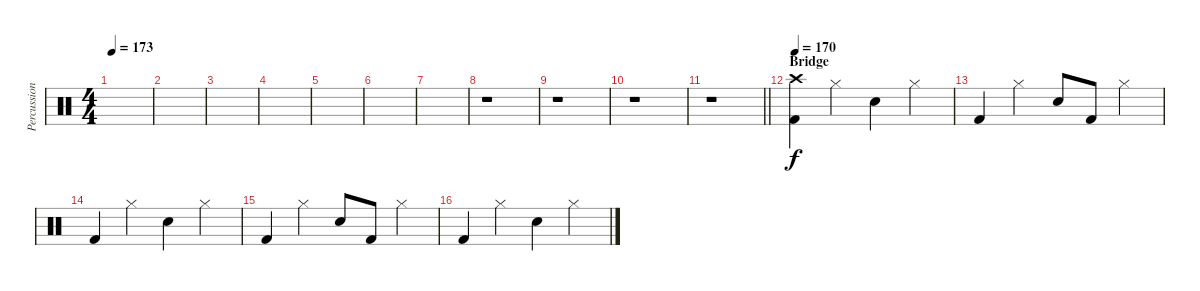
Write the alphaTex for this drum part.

\track ("Percussion" "Percussion") {instrument percussion}
\staff {score}
\articulation defaults
\ts (4 4)
\tempo 173
\clef neutral
\ks c
|
|
|
|
|
|
|
r.1 |
r.1 |
r.1 |
\barLineRight lightlight
r.1 |
\section ("" "Bridge")
\tempo 170
("Crash high (hit)" "Kick (hit) 2").4 "Hi-Hat (closed)".4 "Snare (hit) 2".4 "Hi-Hat (closed)".4 |
"Kick (hit) 2".4 "Hi-Hat (closed)".4 "Snare (hit) 2".8 "Kick (hit) 2".8 "Hi-Hat (closed)".4 |
"Kick (hit) 2".4 "Hi-Hat (closed)".4 "Snare (hit) 2".4 "Hi-Hat (closed)".4 |
"Kick (hit) 2".4 "Hi-Hat (closed)".4 "Snare (hit) 2".8 "Kick (hit) 2".8 "Hi-Hat (closed)".4 |
"Kick (hit) 2".4 "Hi-Hat (closed)".4 "Snare (hit) 2".4 "Hi-Hat (closed)".4
